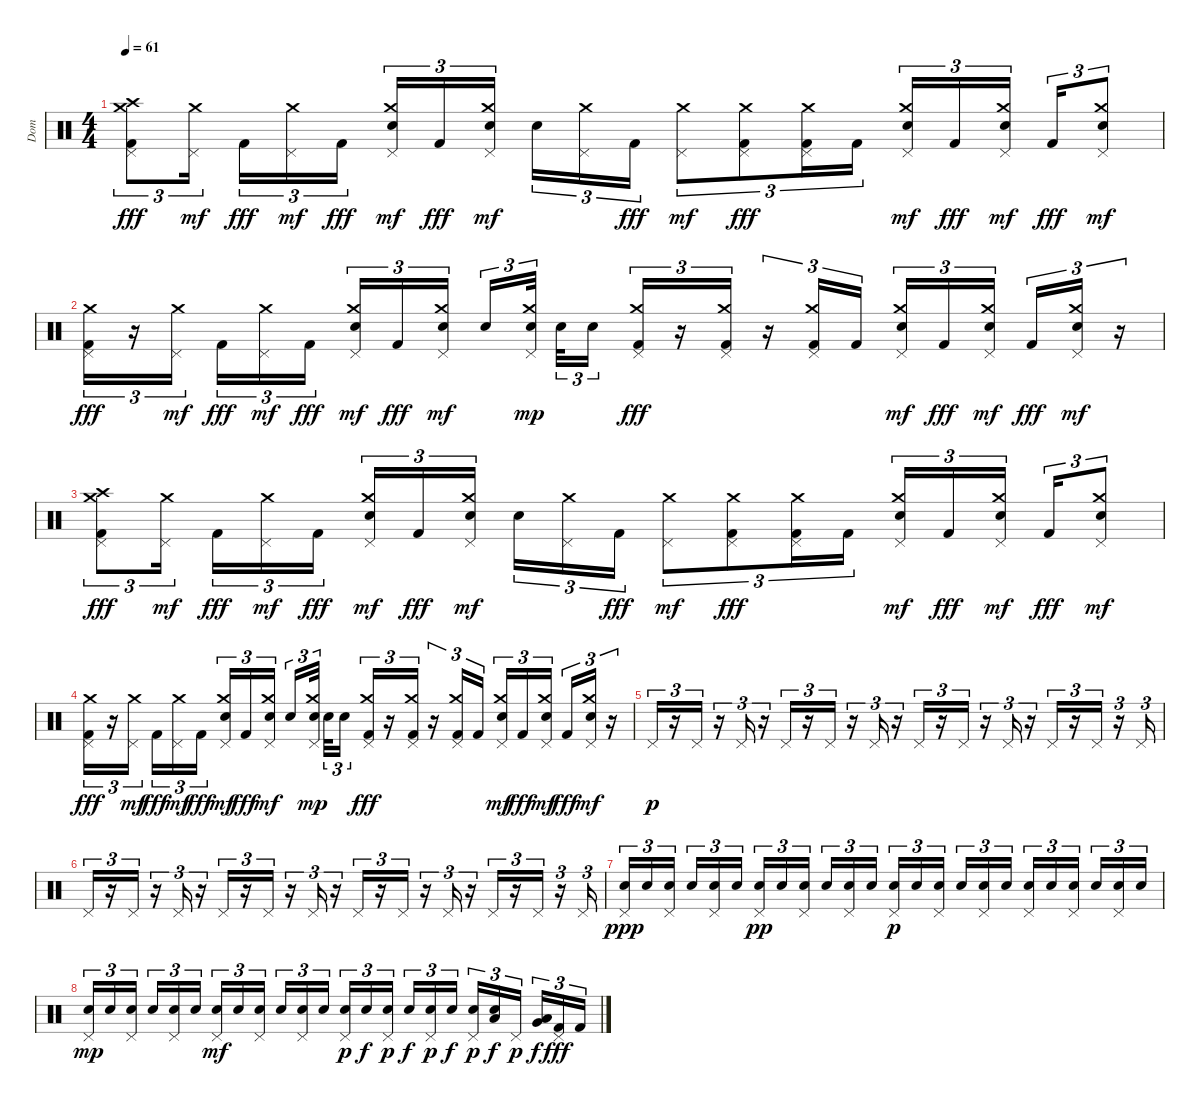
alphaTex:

\track ("Dom" "Dom") {instrument percussion}
\staff {score}
\articulation defaults
\ts (4 4)
\tempo 61
\clef neutral
\ks c
("Crash high (hit)" "Pedal Hi-Hat (hit)" "Crash medium (hit)" "Kick (hit) 2").8{tu (3 2) dy fff} ("Pedal Hi-Hat (hit)" "Crash medium (hit)").16{tu (3 2) dy mf beam splitsecondary} "Kick (hit) 2".16{tu (3 2) dy fff} ("Pedal Hi-Hat (hit)" "Crash medium (hit)").16{tu (3 2) dy mf} "Kick (hit) 2".16{tu (3 2) dy fff} ("Pedal Hi-Hat (hit)" "Crash medium (hit)" "Electric Snare (hit)").16{tu (3 2) dy mf} "Kick (hit) 2".16{tu (3 2) dy fff} ("Pedal Hi-Hat (hit)" "Crash medium (hit)" "Electric Snare (hit)").16{tu (3 2) dy mf beam splitsecondary} "Electric Snare (hit)".16{tu (3 2)} ("Pedal Hi-Hat (hit)" "Crash medium (hit)").16{tu (3 2)} "Kick (hit) 2".16{tu (3 2) dy fff} ("Pedal Hi-Hat (hit)" "Crash medium (hit)").8{tu (3 2) dy mf} ("Pedal Hi-Hat (hit)" "Crash medium (hit)" "Kick (hit) 2").8{tu (3 2) dy fff} ("Pedal Hi-Hat (hit)" "Crash medium (hit)" "Kick (hit) 2").16{tu (3 2)} "Kick (hit) 2".16{tu (3 2)} ("Pedal Hi-Hat (hit)" "Crash medium (hit)" "Electric Snare (hit)").16{tu (3 2) dy mf} "Kick (hit) 2".16{tu (3 2) dy fff} ("Pedal Hi-Hat (hit)" "Crash medium (hit)" "Electric Snare (hit)").16{tu (3 2) dy mf beam splitsecondary} "Kick (hit) 2".16{tu (3 2) dy fff} ("Pedal Hi-Hat (hit)" "Crash medium (hit)" "Electric Snare (hit)").8{tu (3 2) dy mf} |
("Pedal Hi-Hat (hit)" "Crash medium (hit)" "Kick (hit) 2").16{tu (3 2) dy fff} r.16{tu (3 2)} ("Pedal Hi-Hat (hit)" "Crash medium (hit)").16{tu (3 2) dy mf beam splitsecondary} "Kick (hit) 2".16{tu (3 2) dy fff} ("Pedal Hi-Hat (hit)" "Crash medium (hit)").16{tu (3 2) dy mf} "Kick (hit) 2".16{tu (3 2) dy fff} ("Pedal Hi-Hat (hit)" "Crash medium (hit)" "Electric Snare (hit)").16{tu (3 2) dy mf} "Kick (hit) 2".16{tu (3 2) dy fff} ("Pedal Hi-Hat (hit)" "Crash medium (hit)" "Electric Snare (hit)").16{tu (3 2) dy mf beam splitsecondary} "Electric Snare (hit)".16{tu (3 2)} ("Pedal Hi-Hat (hit)" "Crash medium (hit)" "Electric Snare (hit)").32{tu (3 2) dy mp beam splitsecondary} "Electric Snare (hit)".32{tu (3 2)} "Electric Snare (hit)".16{tu (3 2)} ("Pedal Hi-Hat (hit)" "Crash medium (hit)" "Kick (hit) 2").16{tu (3 2) dy fff} r.16{tu (3 2)} ("Pedal Hi-Hat (hit)" "Crash medium (hit)" "Kick (hit) 2").16{tu (3 2)} r.16{tu (3 2)} ("Pedal Hi-Hat (hit)" "Crash medium (hit)" "Kick (hit) 2").16{tu (3 2)} "Kick (hit) 2".16{tu (3 2)} ("Pedal Hi-Hat (hit)" "Crash medium (hit)" "Electric Snare (hit)").16{tu (3 2) dy mf} "Kick (hit) 2".16{tu (3 2) dy fff} ("Pedal Hi-Hat (hit)" "Crash medium (hit)" "Electric Snare (hit)").16{tu (3 2) dy mf beam splitsecondary} "Kick (hit) 2".16{tu (3 2) dy fff} ("Pedal Hi-Hat (hit)" "Crash medium (hit)" "Electric Snare (hit)").16{tu (3 2) dy mf} r.16{tu (3 2)} |
("Crash high (hit)" "Pedal Hi-Hat (hit)" "Crash medium (hit)" "Kick (hit) 2").8{tu (3 2) dy fff} ("Pedal Hi-Hat (hit)" "Crash medium (hit)").16{tu (3 2) dy mf beam splitsecondary} "Kick (hit) 2".16{tu (3 2) dy fff} ("Pedal Hi-Hat (hit)" "Crash medium (hit)").16{tu (3 2) dy mf} "Kick (hit) 2".16{tu (3 2) dy fff} ("Pedal Hi-Hat (hit)" "Crash medium (hit)" "Electric Snare (hit)").16{tu (3 2) dy mf} "Kick (hit) 2".16{tu (3 2) dy fff} ("Pedal Hi-Hat (hit)" "Crash medium (hit)" "Electric Snare (hit)").16{tu (3 2) dy mf beam splitsecondary} "Electric Snare (hit)".16{tu (3 2)} ("Pedal Hi-Hat (hit)" "Crash medium (hit)").16{tu (3 2)} "Kick (hit) 2".16{tu (3 2) dy fff} ("Pedal Hi-Hat (hit)" "Crash medium (hit)").8{tu (3 2) dy mf} ("Pedal Hi-Hat (hit)" "Crash medium (hit)" "Kick (hit) 2").8{tu (3 2) dy fff} ("Pedal Hi-Hat (hit)" "Crash medium (hit)" "Kick (hit) 2").16{tu (3 2)} "Kick (hit) 2".16{tu (3 2)} ("Pedal Hi-Hat (hit)" "Crash medium (hit)" "Electric Snare (hit)").16{tu (3 2) dy mf} "Kick (hit) 2".16{tu (3 2) dy fff} ("Pedal Hi-Hat (hit)" "Crash medium (hit)" "Electric Snare (hit)").16{tu (3 2) dy mf beam splitsecondary} "Kick (hit) 2".16{tu (3 2) dy fff} ("Pedal Hi-Hat (hit)" "Crash medium (hit)" "Electric Snare (hit)").8{tu (3 2) dy mf} |
("Pedal Hi-Hat (hit)" "Crash medium (hit)" "Kick (hit) 2").16{tu (3 2) dy fff} r.16{tu (3 2)} ("Pedal Hi-Hat (hit)" "Crash medium (hit)").16{tu (3 2) dy mf beam splitsecondary} "Kick (hit) 2".16{tu (3 2) dy fff} ("Pedal Hi-Hat (hit)" "Crash medium (hit)").16{tu (3 2) dy mf} "Kick (hit) 2".16{tu (3 2) dy fff} ("Pedal Hi-Hat (hit)" "Crash medium (hit)" "Electric Snare (hit)").16{tu (3 2) dy mf} "Kick (hit) 2".16{tu (3 2) dy fff} ("Pedal Hi-Hat (hit)" "Crash medium (hit)" "Electric Snare (hit)").16{tu (3 2) dy mf beam splitsecondary} "Electric Snare (hit)".16{tu (3 2)} ("Pedal Hi-Hat (hit)" "Crash medium (hit)" "Electric Snare (hit)").32{tu (3 2) dy mp beam splitsecondary} "Electric Snare (hit)".32{tu (3 2)} "Electric Snare (hit)".16{tu (3 2)} ("Pedal Hi-Hat (hit)" "Crash medium (hit)" "Kick (hit) 2").16{tu (3 2) dy fff} r.16{tu (3 2)} ("Pedal Hi-Hat (hit)" "Crash medium (hit)" "Kick (hit) 2").16{tu (3 2)} r.16{tu (3 2)} ("Pedal Hi-Hat (hit)" "Crash medium (hit)" "Kick (hit) 2").16{tu (3 2)} "Kick (hit) 2".16{tu (3 2)} ("Pedal Hi-Hat (hit)" "Crash medium (hit)" "Electric Snare (hit)").16{tu (3 2) dy mf} "Kick (hit) 2".16{tu (3 2) dy fff} ("Pedal Hi-Hat (hit)" "Crash medium (hit)" "Electric Snare (hit)").16{tu (3 2) dy mf beam splitsecondary} "Kick (hit) 2".16{tu (3 2) dy fff} ("Pedal Hi-Hat (hit)" "Crash medium (hit)" "Electric Snare (hit)").16{tu (3 2) dy mf} r.16{tu (3 2)} |
"Pedal Hi-Hat (hit)".16{tu (3 2) dy p} r.16{tu (3 2)} "Pedal Hi-Hat (hit)".16{tu (3 2)} r.16{tu (3 2)} "Pedal Hi-Hat (hit)".16{tu (3 2)} r.16{tu (3 2)} "Pedal Hi-Hat (hit)".16{tu (3 2)} r.16{tu (3 2)} "Pedal Hi-Hat (hit)".16{tu (3 2)} r.16{tu (3 2)} "Pedal Hi-Hat (hit)".16{tu (3 2)} r.16{tu (3 2)} "Pedal Hi-Hat (hit)".16{tu (3 2)} r.16{tu (3 2)} "Pedal Hi-Hat (hit)".16{tu (3 2)} r.16{tu (3 2)} "Pedal Hi-Hat (hit)".16{tu (3 2)} r.16{tu (3 2)} "Pedal Hi-Hat (hit)".16{tu (3 2)} r.16{tu (3 2)} "Pedal Hi-Hat (hit)".16{tu (3 2)} r.16{tu (3 2)} "Pedal Hi-Hat (hit)".16{tu (3 2)} |
"Pedal Hi-Hat (hit)".16{tu (3 2)} r.16{tu (3 2)} "Pedal Hi-Hat (hit)".16{tu (3 2)} r.16{tu (3 2)} "Pedal Hi-Hat (hit)".16{tu (3 2)} r.16{tu (3 2)} "Pedal Hi-Hat (hit)".16{tu (3 2)} r.16{tu (3 2)} "Pedal Hi-Hat (hit)".16{tu (3 2)} r.16{tu (3 2)} "Pedal Hi-Hat (hit)".16{tu (3 2)} r.16{tu (3 2)} "Pedal Hi-Hat (hit)".16{tu (3 2)} r.16{tu (3 2)} "Pedal Hi-Hat (hit)".16{tu (3 2)} r.16{tu (3 2)} "Pedal Hi-Hat (hit)".16{tu (3 2)} r.16{tu (3 2)} "Pedal Hi-Hat (hit)".16{tu (3 2)} r.16{tu (3 2)} "Pedal Hi-Hat (hit)".16{tu (3 2)} r.16{tu (3 2)} "Pedal Hi-Hat (hit)".16{tu (3 2)} |
("Pedal Hi-Hat (hit)" "Electric Snare (hit)").16{tu (3 2) dy ppp} "Electric Snare (hit)".16{tu (3 2)} ("Pedal Hi-Hat (hit)" "Electric Snare (hit)").16{tu (3 2) beam splitsecondary} "Electric Snare (hit)".16{tu (3 2)} ("Pedal Hi-Hat (hit)" "Electric Snare (hit)").16{tu (3 2)} "Electric Snare (hit)".16{tu (3 2)} ("Pedal Hi-Hat (hit)" "Electric Snare (hit)").16{tu (3 2) dy pp} "Electric Snare (hit)".16{tu (3 2)} ("Pedal Hi-Hat (hit)" "Electric Snare (hit)").16{tu (3 2) beam splitsecondary} "Electric Snare (hit)".16{tu (3 2)} ("Pedal Hi-Hat (hit)" "Electric Snare (hit)").16{tu (3 2)} "Electric Snare (hit)".16{tu (3 2)} ("Pedal Hi-Hat (hit)" "Electric Snare (hit)").16{tu (3 2) dy p} "Electric Snare (hit)".16{tu (3 2)} ("Pedal Hi-Hat (hit)" "Electric Snare (hit)").16{tu (3 2) beam splitsecondary} "Electric Snare (hit)".16{tu (3 2)} ("Pedal Hi-Hat (hit)" "Electric Snare (hit)").16{tu (3 2)} "Electric Snare (hit)".16{tu (3 2)} ("Pedal Hi-Hat (hit)" "Electric Snare (hit)").16{tu (3 2)} "Electric Snare (hit)".16{tu (3 2)} ("Pedal Hi-Hat (hit)" "Electric Snare (hit)").16{tu (3 2) beam splitsecondary} "Electric Snare (hit)".16{tu (3 2)} ("Pedal Hi-Hat (hit)" "Electric Snare (hit)").16{tu (3 2)} "Electric Snare (hit)".16{tu (3 2)} |
("Pedal Hi-Hat (hit)" "Electric Snare (hit)").16{tu (3 2) dy mp} "Electric Snare (hit)".16{tu (3 2)} ("Pedal Hi-Hat (hit)" "Electric Snare (hit)").16{tu (3 2) beam splitsecondary} "Electric Snare (hit)".16{tu (3 2)} ("Pedal Hi-Hat (hit)" "Electric Snare (hit)").16{tu (3 2)} "Electric Snare (hit)".16{tu (3 2)} ("Pedal Hi-Hat (hit)" "Electric Snare (hit)").16{tu (3 2) dy mf} "Electric Snare (hit)".16{tu (3 2)} ("Pedal Hi-Hat (hit)" "Electric Snare (hit)").16{tu (3 2) beam splitsecondary} "Electric Snare (hit)".16{tu (3 2)} ("Pedal Hi-Hat (hit)" "Electric Snare (hit)").16{tu (3 2)} "Electric Snare (hit)".16{tu (3 2)} ("Pedal Hi-Hat (hit)" "Electric Snare (hit)").16{tu (3 2) dy p} "Electric Snare (hit)".16{tu (3 2) dy f} ("Pedal Hi-Hat (hit)" "Electric Snare (hit)").16{tu (3 2) dy p beam splitsecondary} "Electric Snare (hit)".16{tu (3 2) dy f} ("Pedal Hi-Hat (hit)" "Electric Snare (hit)").16{tu (3 2) dy p} "Electric Snare (hit)".16{tu (3 2) dy f} ("Pedal Hi-Hat (hit)" "Electric Snare (hit)").16{tu (3 2) dy p} ("Electric Snare (hit)" "Low Tom (hit)").16{tu (3 2) dy f} "Pedal Hi-Hat (hit)".16{tu (3 2) dy p beam splitsecondary} ("Very Low Tom (hit)" "Low Floor Tom (hit)").16{tu (3 2) dy f} ("Pedal Hi-Hat (hit)" "Kick (hit) 2").16{tu (3 2) dy fff} "Kick (hit) 2".16{tu (3 2)}
